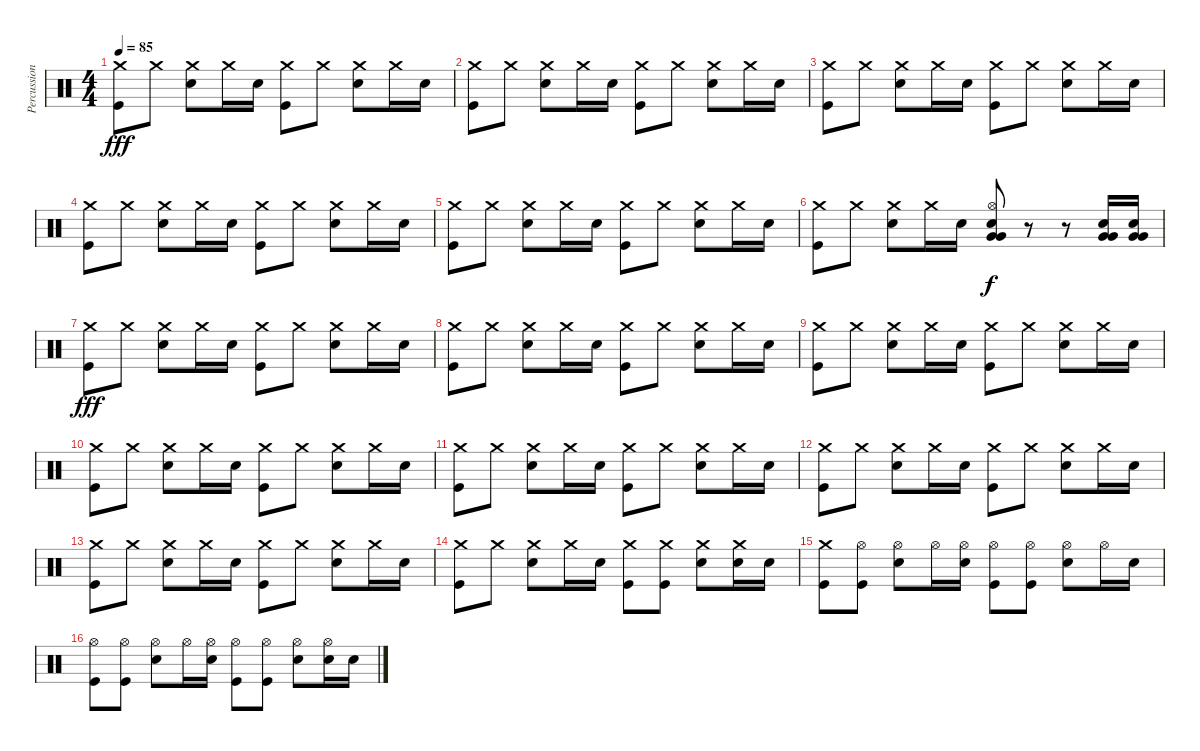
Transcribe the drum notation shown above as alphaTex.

\track ("Percussion" "Percussion") {instrument percussion}
\staff {score}
\articulation defaults
\ts (4 4)
\tempo 85
\clef neutral
\ks c
("Crash medium (hit)" "Kick (hit)").8{dy fff} "Crash medium (hit)".8 ("Crash medium (hit)" "Electric Snare (hit)").8 "Crash medium (hit)".16 "Electric Snare (hit)".16 ("Crash medium (hit)" "Kick (hit)").8 "Crash medium (hit)".8 ("Crash medium (hit)" "Electric Snare (hit)").8 "Crash medium (hit)".16 "Electric Snare (hit)".16 |
("Crash medium (hit)" "Kick (hit)").8 "Crash medium (hit)".8 ("Crash medium (hit)" "Electric Snare (hit)").8 "Crash medium (hit)".16 "Electric Snare (hit)".16 ("Crash medium (hit)" "Kick (hit)").8 "Crash medium (hit)".8 ("Crash medium (hit)" "Electric Snare (hit)").8 "Crash medium (hit)".16 "Electric Snare (hit)".16 |
("Crash medium (hit)" "Kick (hit)").8 "Crash medium (hit)".8 ("Crash medium (hit)" "Electric Snare (hit)").8 "Crash medium (hit)".16 "Electric Snare (hit)".16 ("Crash medium (hit)" "Kick (hit)").8 "Crash medium (hit)".8 ("Crash medium (hit)" "Electric Snare (hit)").8 "Crash medium (hit)".16 "Electric Snare (hit)".16 |
("Crash medium (hit)" "Kick (hit)").8 "Crash medium (hit)".8 ("Crash medium (hit)" "Electric Snare (hit)").8 "Crash medium (hit)".16 "Electric Snare (hit)".16 ("Crash medium (hit)" "Kick (hit)").8 "Crash medium (hit)".8 ("Crash medium (hit)" "Electric Snare (hit)").8 "Crash medium (hit)".16 "Electric Snare (hit)".16 |
("Crash medium (hit)" "Kick (hit)").8 "Crash medium (hit)".8 ("Crash medium (hit)" "Electric Snare (hit)").8 "Crash medium (hit)".16 "Electric Snare (hit)".16 ("Crash medium (hit)" "Kick (hit)").8 "Crash medium (hit)".8 ("Crash medium (hit)" "Electric Snare (hit)").8 "Crash medium (hit)".16 "Electric Snare (hit)".16 |
("Crash medium (hit)" "Kick (hit)").8 "Crash medium (hit)".8 ("Crash medium (hit)" "Electric Snare (hit)").8 "Crash medium (hit)".16 "Electric Snare (hit)".16 ("Hi-Hat (open)" "Electric Snare (hit)" "Very Low Tom (hit)" "Very Low Tom (hit)").8{dy f} r.8 r.8 ("Electric Snare (hit)" "Very Low Tom (hit)" "Very Low Tom (hit)").16 ("Electric Snare (hit)" "Very Low Tom (hit)" "Very Low Tom (hit)").16 |
("Crash medium (hit)" "Kick (hit)").8{dy fff} "Crash medium (hit)".8 ("Crash medium (hit)" "Electric Snare (hit)").8 "Crash medium (hit)".16 "Electric Snare (hit)".16 ("Crash medium (hit)" "Kick (hit)").8 "Crash medium (hit)".8 ("Crash medium (hit)" "Electric Snare (hit)").8 "Crash medium (hit)".16 "Electric Snare (hit)".16 |
("Crash medium (hit)" "Kick (hit)").8 "Crash medium (hit)".8 ("Crash medium (hit)" "Electric Snare (hit)").8 "Crash medium (hit)".16 "Electric Snare (hit)".16 ("Crash medium (hit)" "Kick (hit)").8 "Crash medium (hit)".8 ("Crash medium (hit)" "Electric Snare (hit)").8 "Crash medium (hit)".16 "Electric Snare (hit)".16 |
("Crash medium (hit)" "Kick (hit)").8 "Crash medium (hit)".8 ("Crash medium (hit)" "Electric Snare (hit)").8 "Crash medium (hit)".16 "Electric Snare (hit)".16 ("Crash medium (hit)" "Kick (hit)").8 "Crash medium (hit)".8 ("Crash medium (hit)" "Electric Snare (hit)").8 "Crash medium (hit)".16 "Electric Snare (hit)".16 |
("Crash medium (hit)" "Kick (hit)").8 "Crash medium (hit)".8 ("Crash medium (hit)" "Electric Snare (hit)").8 "Crash medium (hit)".16 "Electric Snare (hit)".16 ("Crash medium (hit)" "Kick (hit)").8 "Crash medium (hit)".8 ("Crash medium (hit)" "Electric Snare (hit)").8 "Crash medium (hit)".16 "Electric Snare (hit)".16 |
("Crash medium (hit)" "Kick (hit)").8 "Crash medium (hit)".8 ("Crash medium (hit)" "Electric Snare (hit)").8 "Crash medium (hit)".16 "Electric Snare (hit)".16 ("Crash medium (hit)" "Kick (hit)").8 "Crash medium (hit)".8 ("Crash medium (hit)" "Electric Snare (hit)").8 "Crash medium (hit)".16 "Electric Snare (hit)".16 |
("Crash medium (hit)" "Kick (hit)").8 "Crash medium (hit)".8 ("Crash medium (hit)" "Electric Snare (hit)").8 "Crash medium (hit)".16 "Electric Snare (hit)".16 ("Crash medium (hit)" "Kick (hit)").8 "Crash medium (hit)".8 ("Crash medium (hit)" "Electric Snare (hit)").8 "Crash medium (hit)".16 "Electric Snare (hit)".16 |
("Crash medium (hit)" "Kick (hit)").8 "Crash medium (hit)".8 ("Crash medium (hit)" "Electric Snare (hit)").8 "Crash medium (hit)".16 "Electric Snare (hit)".16 ("Crash medium (hit)" "Kick (hit)").8 "Crash medium (hit)".8 ("Crash medium (hit)" "Electric Snare (hit)").8 "Crash medium (hit)".16 "Electric Snare (hit)".16 |
("Crash medium (hit)" "Kick (hit)").8 "Crash medium (hit)".8 ("Crash medium (hit)" "Electric Snare (hit)").8 "Crash medium (hit)".16 "Electric Snare (hit)".16 ("Crash medium (hit)" "Kick (hit)").8 ("Crash medium (hit)" "Kick (hit)").8 ("Crash medium (hit)" "Electric Snare (hit)").8 ("Crash medium (hit)" "Electric Snare (hit)").16 "Electric Snare (hit)".16 |
("Crash medium (hit)" "Kick (hit)").8 ("Hi-Hat (open)" "Kick (hit)").8 ("Hi-Hat (open)" "Electric Snare (hit)").8 "Hi-Hat (open)".16 ("Hi-Hat (open)" "Electric Snare (hit)").16 ("Hi-Hat (open)" "Kick (hit)").8 ("Hi-Hat (open)" "Kick (hit)").8 ("Hi-Hat (open)" "Electric Snare (hit)").8 "Hi-Hat (open)".16 "Electric Snare (hit)".16 |
("Hi-Hat (open)" "Kick (hit)").8 ("Hi-Hat (open)" "Kick (hit)").8 ("Hi-Hat (open)" "Electric Snare (hit)").8 "Hi-Hat (open)".16 ("Hi-Hat (open)" "Electric Snare (hit)").16 ("Hi-Hat (open)" "Kick (hit)").8 ("Hi-Hat (open)" "Kick (hit)").8 ("Hi-Hat (open)" "Electric Snare (hit)").8 ("Hi-Hat (open)" "Electric Snare (hit)").16 "Electric Snare (hit)".16
